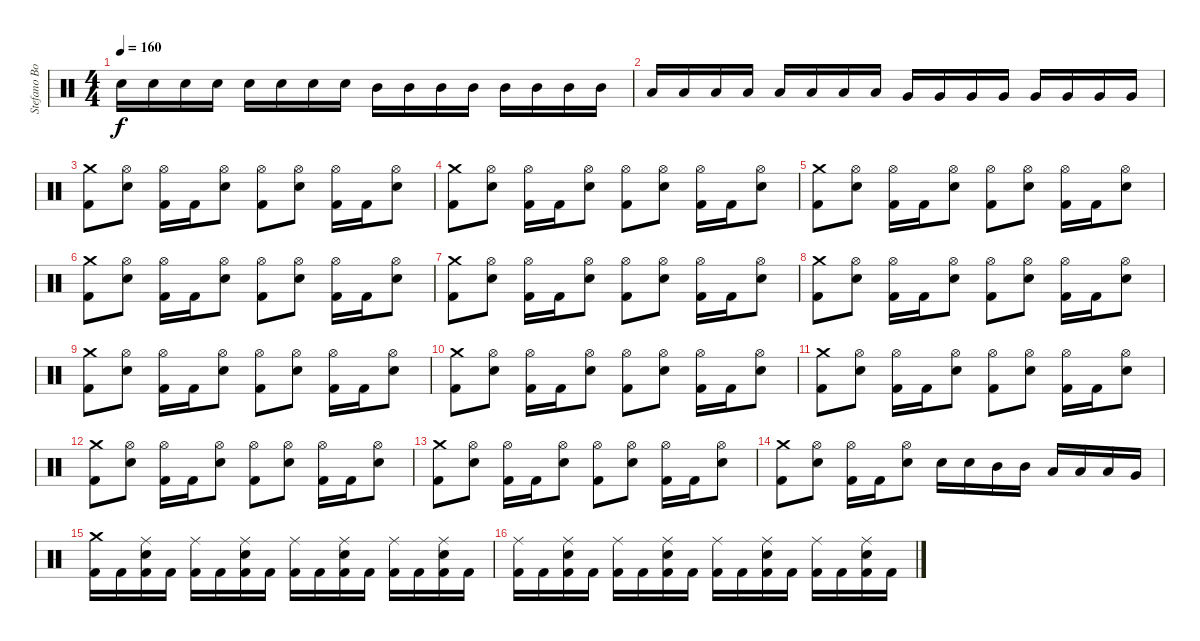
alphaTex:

\track ("Stefano Bonini" "Stefano Bo") {instrument percussion}
\staff {score}
\articulation defaults
\ts (4 4)
\tempo 160
\clef neutral
\ks c "Snare (hit) 2".16{dy f} "Snare (hit) 2".16 "Snare (hit) 2".16 "Snare (hit) 2".16 "Snare (hit) 2".16 "Snare (hit) 2".16 "Snare (hit) 2".16 "Snare (hit) 2".16 "Mid Tom (hit)".16 "Mid Tom (hit)".16 "Mid Tom (hit)".16 "Mid Tom (hit)".16 "Mid Tom (hit)".16 "Mid Tom (hit)".16 "Mid Tom (hit)".16 "Mid Tom (hit)".16
|
"Low Tom (hit)".16 "Low Tom (hit)".16 "Low Tom (hit)".16 "Low Tom (hit)".16 "Low Tom (hit)".16 "Low Tom (hit)".16 "Low Tom (hit)".16 "Low Tom (hit)".16 "Very Low Tom (hit)".16 "Very Low Tom (hit)".16 "Very Low Tom (hit)".16 "Very Low Tom (hit)".16 "Very Low Tom (hit)".16 "Very Low Tom (hit)".16 "Very Low Tom (hit)".16 "Very Low Tom (hit)".16 |
("Crash medium (hit)" "Kick (hit) 2").8 ("Hi-Hat (open)" "Snare (hit) 2").8 ("Hi-Hat (open)" "Kick (hit) 2").16 "Kick (hit) 2".16 ("Hi-Hat (open)" "Snare (hit) 2").8 ("Hi-Hat (open)" "Kick (hit) 2").8 ("Hi-Hat (open)" "Snare (hit) 2").8 ("Hi-Hat (open)" "Kick (hit) 2").16 "Kick (hit) 2".16 ("Hi-Hat (open)" "Snare (hit) 2").8 |
("Crash medium (hit)" "Kick (hit) 2").8 ("Hi-Hat (open)" "Snare (hit) 2").8 ("Hi-Hat (open)" "Kick (hit) 2").16 "Kick (hit) 2".16 ("Hi-Hat (open)" "Snare (hit) 2").8 ("Hi-Hat (open)" "Kick (hit) 2").8 ("Hi-Hat (open)" "Snare (hit) 2").8 ("Hi-Hat (open)" "Kick (hit) 2").16 "Kick (hit) 2".16 ("Hi-Hat (open)" "Snare (hit) 2").8 |
("Crash medium (hit)" "Kick (hit) 2").8 ("Hi-Hat (open)" "Snare (hit) 2").8 ("Hi-Hat (open)" "Kick (hit) 2").16 "Kick (hit) 2".16 ("Hi-Hat (open)" "Snare (hit) 2").8 ("Hi-Hat (open)" "Kick (hit) 2").8 ("Hi-Hat (open)" "Snare (hit) 2").8 ("Hi-Hat (open)" "Kick (hit) 2").16 "Kick (hit) 2".16 ("Hi-Hat (open)" "Snare (hit) 2").8 |
("Crash medium (hit)" "Kick (hit) 2").8 ("Hi-Hat (open)" "Snare (hit) 2").8 ("Hi-Hat (open)" "Kick (hit) 2").16 "Kick (hit) 2".16 ("Hi-Hat (open)" "Snare (hit) 2").8 ("Hi-Hat (open)" "Kick (hit) 2").8 ("Hi-Hat (open)" "Snare (hit) 2").8 ("Hi-Hat (open)" "Kick (hit) 2").16 "Kick (hit) 2".16 ("Hi-Hat (open)" "Snare (hit) 2").8 |
("Crash medium (hit)" "Kick (hit) 2").8 ("Hi-Hat (open)" "Snare (hit) 2").8 ("Hi-Hat (open)" "Kick (hit) 2").16 "Kick (hit) 2".16 ("Hi-Hat (open)" "Snare (hit) 2").8 ("Hi-Hat (open)" "Kick (hit) 2").8 ("Hi-Hat (open)" "Snare (hit) 2").8 ("Hi-Hat (open)" "Kick (hit) 2").16 "Kick (hit) 2".16 ("Hi-Hat (open)" "Snare (hit) 2").8 |
("Crash medium (hit)" "Kick (hit) 2").8 ("Hi-Hat (open)" "Snare (hit) 2").8 ("Hi-Hat (open)" "Kick (hit) 2").16 "Kick (hit) 2".16 ("Hi-Hat (open)" "Snare (hit) 2").8 ("Hi-Hat (open)" "Kick (hit) 2").8 ("Hi-Hat (open)" "Snare (hit) 2").8 ("Hi-Hat (open)" "Kick (hit) 2").16 "Kick (hit) 2".16 ("Hi-Hat (open)" "Snare (hit) 2").8 |
("Crash medium (hit)" "Kick (hit) 2").8 ("Hi-Hat (open)" "Snare (hit) 2").8 ("Hi-Hat (open)" "Kick (hit) 2").16 "Kick (hit) 2".16 ("Hi-Hat (open)" "Snare (hit) 2").8 ("Hi-Hat (open)" "Kick (hit) 2").8 ("Hi-Hat (open)" "Snare (hit) 2").8 ("Hi-Hat (open)" "Kick (hit) 2").16 "Kick (hit) 2".16 ("Hi-Hat (open)" "Snare (hit) 2").8 |
("Crash medium (hit)" "Kick (hit) 2").8 ("Hi-Hat (open)" "Snare (hit) 2").8 ("Hi-Hat (open)" "Kick (hit) 2").16 "Kick (hit) 2".16 ("Hi-Hat (open)" "Snare (hit) 2").8 ("Hi-Hat (open)" "Kick (hit) 2").8 ("Hi-Hat (open)" "Snare (hit) 2").8 ("Hi-Hat (open)" "Kick (hit) 2").16 "Kick (hit) 2".16 ("Hi-Hat (open)" "Snare (hit) 2").8 |
("Crash medium (hit)" "Kick (hit) 2").8 ("Hi-Hat (open)" "Snare (hit) 2").8 ("Hi-Hat (open)" "Kick (hit) 2").16 "Kick (hit) 2".16 ("Hi-Hat (open)" "Snare (hit) 2").8 ("Hi-Hat (open)" "Kick (hit) 2").8 ("Hi-Hat (open)" "Snare (hit) 2").8 ("Hi-Hat (open)" "Kick (hit) 2").16 "Kick (hit) 2".16 ("Hi-Hat (open)" "Snare (hit) 2").8 |
("Crash medium (hit)" "Kick (hit) 2").8 ("Hi-Hat (open)" "Snare (hit) 2").8 ("Hi-Hat (open)" "Kick (hit) 2").16 "Kick (hit) 2".16 ("Hi-Hat (open)" "Snare (hit) 2").8 ("Hi-Hat (open)" "Kick (hit) 2").8 ("Hi-Hat (open)" "Snare (hit) 2").8 ("Hi-Hat (open)" "Kick (hit) 2").16 "Kick (hit) 2".16 ("Hi-Hat (open)" "Snare (hit) 2").8 |
("Crash medium (hit)" "Kick (hit) 2").8 ("Hi-Hat (open)" "Snare (hit) 2").8 ("Hi-Hat (open)" "Kick (hit) 2").16 "Kick (hit) 2".16 ("Hi-Hat (open)" "Snare (hit) 2").8 ("Hi-Hat (open)" "Kick (hit) 2").8 ("Hi-Hat (open)" "Snare (hit) 2").8 ("Hi-Hat (open)" "Kick (hit) 2").16 "Kick (hit) 2".16 ("Hi-Hat (open)" "Snare (hit) 2").8 |
("Crash medium (hit)" "Kick (hit) 2").8 ("Hi-Hat (open)" "Snare (hit) 2").8 ("Hi-Hat (open)" "Kick (hit) 2").16 "Kick (hit) 2".16 ("Hi-Hat (open)" "Snare (hit) 2").8 "Snare (hit) 2".16 "Snare (hit) 2".16 "Mid Tom (hit)".16 "Mid Tom (hit)".16 "Low Tom (hit)".16 "Low Tom (hit)".16 "Low Tom (hit)".16 "Very Low Tom (hit)".16 |
("Crash medium (hit)" "Kick (hit) 2").16 "Kick (hit) 2".16 ("Ride (middle)" "Snare (hit) 2" "Kick (hit) 2").16 "Kick (hit) 2".16 ("Ride (middle)" "Kick (hit) 2").16 "Kick (hit) 2".16 ("Ride (middle)" "Snare (hit) 2" "Kick (hit) 2").16 "Kick (hit) 2".16 ("Ride (middle)" "Kick (hit) 2").16 "Kick (hit) 2".16 ("Ride (middle)" "Snare (hit) 2" "Kick (hit) 2").16 "Kick (hit) 2".16 ("Ride (middle)" "Kick (hit) 2").16 "Kick (hit) 2".16 ("Ride (middle)" "Snare (hit) 2" "Kick (hit) 2").16 "Kick (hit) 2".16 |
("Ride (middle)" "Kick (hit) 2").16 "Kick (hit) 2".16 ("Ride (middle)" "Snare (hit) 2" "Kick (hit) 2").16 "Kick (hit) 2".16 ("Ride (middle)" "Kick (hit) 2").16 "Kick (hit) 2".16 ("Ride (middle)" "Snare (hit) 2" "Kick (hit) 2").16 "Kick (hit) 2".16 ("Ride (middle)" "Kick (hit) 2").16 "Kick (hit) 2".16 ("Ride (middle)" "Snare (hit) 2" "Kick (hit) 2").16 "Kick (hit) 2".16 ("Ride (middle)" "Kick (hit) 2").16 "Kick (hit) 2".16 ("Ride (middle)" "Snare (hit) 2" "Kick (hit) 2").16 "Kick (hit) 2".16
